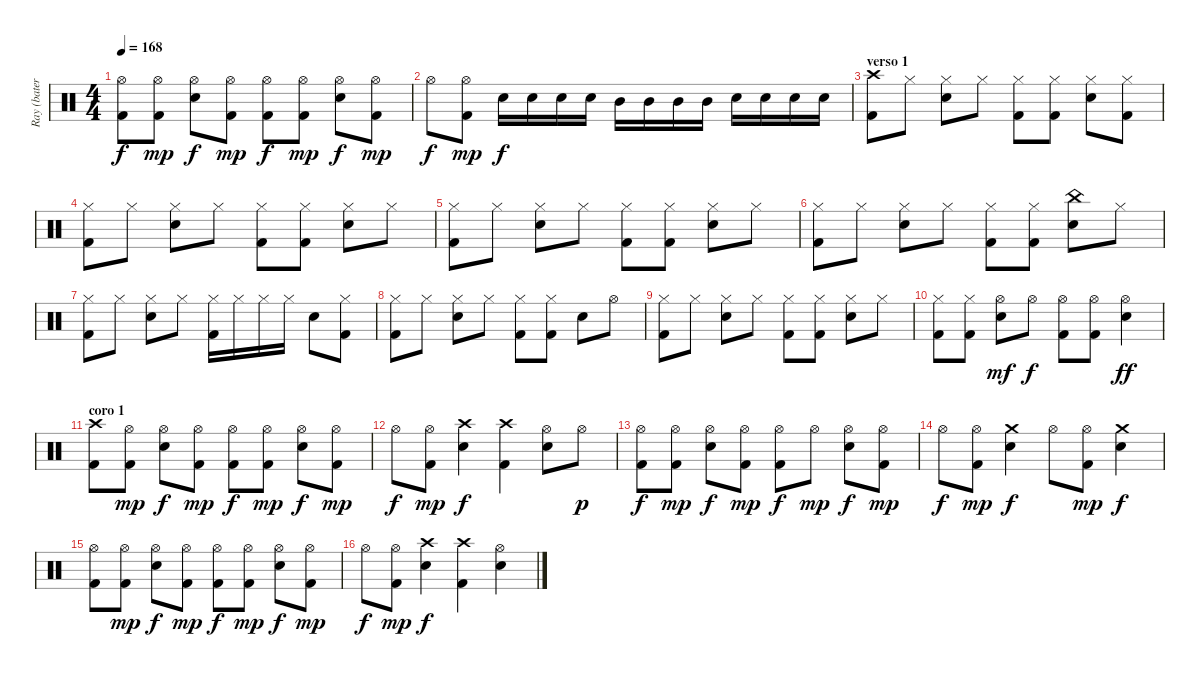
\track ("Ray (batería)" "Ray (bater") {instrument percussion}
\staff {score}
\articulation defaults
\ts (4 4)
\tempo 168
\clef neutral
\ks c
("Hi-Hat (open)" "Kick (hit) 2").8{dy f} ("Hi-Hat (open)" "Kick (hit) 2").8{dy mp} ("Hi-Hat (open)" "Snare (hit) 2").8{dy f} ("Hi-Hat (open)" "Kick (hit) 2").8{dy mp} ("Hi-Hat (open)" "Kick (hit) 2").8{dy f} ("Hi-Hat (open)" "Kick (hit) 2").8{dy mp} ("Hi-Hat (open)" "Snare (hit) 2").8{dy f} ("Hi-Hat (open)" "Kick (hit) 2").8{dy mp} |
"Hi-Hat (open)".8{dy f} ("Hi-Hat (open)" "Kick (hit) 2").8{dy mp} "Snare (hit) 2".16{dy f} "Snare (hit) 2".16 "Snare (hit) 2".16 "Snare (hit) 2".16 "Mid Tom (hit)".16 "Mid Tom (hit)".16 "Mid Tom (hit)".16 "Mid Tom (hit)".16 "Snare (hit) 2".16 "Snare (hit) 2".16 "Snare (hit) 2".16 "Snare (hit) 2".16 |
\section ("" "verso 1")
("Crash high (hit)" "Kick (hit) 2").8 "Hi-Hat (closed)".8 ("Hi-Hat (closed)" "Snare (hit) 2").8 "Hi-Hat (closed)".8 ("Hi-Hat (closed)" "Kick (hit) 2").8 ("Hi-Hat (closed)" "Kick (hit) 2").8 ("Hi-Hat (closed)" "Snare (hit) 2").8 ("Hi-Hat (closed)" "Kick (hit) 2").8 |
("Hi-Hat (closed)" "Kick (hit) 2").8 "Hi-Hat (closed)".8 ("Hi-Hat (closed)" "Snare (hit) 2").8 "Hi-Hat (closed)".8 ("Hi-Hat (closed)" "Kick (hit) 2").8 ("Hi-Hat (closed)" "Kick (hit) 2").8 ("Hi-Hat (closed)" "Snare (hit) 2").8 "Hi-Hat (closed)".8 |
("Hi-Hat (closed)" "Kick (hit) 2").8 "Hi-Hat (closed)".8 ("Hi-Hat (closed)" "Snare (hit) 2").8 "Hi-Hat (closed)".8 ("Hi-Hat (closed)" "Kick (hit) 2").8 ("Hi-Hat (closed)" "Kick (hit) 2").8 ("Hi-Hat (closed)" "Snare (hit) 2").8 "Hi-Hat (closed)".8 |
("Hi-Hat (closed)" "Kick (hit) 2").8 "Hi-Hat (closed)".8 ("Hi-Hat (closed)" "Snare (hit) 2").8 "Hi-Hat (closed)".8 ("Hi-Hat (closed)" "Kick (hit) 2").8 ("Hi-Hat (closed)" "Kick (hit) 2").8 ("China (hit)" "Snare (hit) 2").8 "Hi-Hat (closed)".8 |
("Hi-Hat (closed)" "Kick (hit) 2").8 "Hi-Hat (closed)".8 ("Hi-Hat (closed)" "Snare (hit) 2").8 "Hi-Hat (closed)".8 ("Hi-Hat (closed)" "Kick (hit) 2").16 "Hi-Hat (closed)".16 "Hi-Hat (closed)".16 "Hi-Hat (closed)".16 "Snare (hit) 2".8 ("Hi-Hat (closed)" "Kick (hit) 2").8 |
("Hi-Hat (closed)" "Kick (hit) 2").8 "Hi-Hat (closed)".8 ("Hi-Hat (closed)" "Snare (hit) 2").8 "Hi-Hat (closed)".8 ("Hi-Hat (closed)" "Kick (hit) 2").8 ("Hi-Hat (closed)" "Kick (hit) 2").8 "Snare (hit) 2".8 "Hi-Hat (open)".8 |
("Hi-Hat (closed)" "Kick (hit) 2").8 "Hi-Hat (closed)".8 ("Hi-Hat (closed)" "Snare (hit) 2").8 "Hi-Hat (closed)".8 ("Hi-Hat (closed)" "Kick (hit) 2").8 ("Hi-Hat (closed)" "Kick (hit) 2").8 ("Hi-Hat (closed)" "Snare (hit) 2").8 "Hi-Hat (closed)".8 |
("Hi-Hat (closed)" "Kick (hit) 2").8 ("Hi-Hat (closed)" "Kick (hit) 2").8 ("Hi-Hat (open)" "Snare (hit) 2").8{dy mf} "Hi-Hat (open)".8{dy f} ("Hi-Hat (open)" "Kick (hit) 2").8 ("Hi-Hat (open)" "Kick (hit) 2").8 ("Hi-Hat (open)" "Snare (hit) 2").4{dy ff} |
\section ("" "coro 1")
("Crash high (hit)" "Kick (hit) 2").8 ("Hi-Hat (open)" "Kick (hit) 2").8{dy mp} ("Hi-Hat (open)" "Snare (hit) 2").8{dy f} ("Hi-Hat (open)" "Kick (hit) 2").8{dy mp} ("Hi-Hat (open)" "Kick (hit) 2").8{dy f} ("Hi-Hat (open)" "Kick (hit) 2").8{dy mp} ("Hi-Hat (open)" "Snare (hit) 2").8{dy f} ("Hi-Hat (open)" "Kick (hit) 2").8{dy mp} |
"Hi-Hat (open)".8{dy f} ("Hi-Hat (open)" "Kick (hit) 2").8{dy mp} ("Crash high (hit)" "Snare (hit) 2").4{dy f} ("Crash high (hit)" "Kick (hit) 2").4 ("Hi-Hat (open)" "Snare (hit) 2").8 "Hi-Hat (open)".8{dy p} |
("Hi-Hat (open)" "Kick (hit) 2").8{dy f} ("Hi-Hat (open)" "Kick (hit) 2").8{dy mp} ("Hi-Hat (open)" "Snare (hit) 2").8{dy f} ("Hi-Hat (open)" "Kick (hit) 2").8{dy mp} ("Hi-Hat (open)" "Kick (hit) 2").8{dy f} "Hi-Hat (open)".8{dy mp} ("Hi-Hat (open)" "Snare (hit) 2").8{dy f} ("Hi-Hat (open)" "Kick (hit) 2").8{dy mp} |
"Hi-Hat (open)".8{dy f} ("Hi-Hat (open)" "Kick (hit) 2").8{dy mp} ("Crash medium (hit)" "Snare (hit) 2").4{dy f} "Hi-Hat (open)".8 ("Hi-Hat (open)" "Kick (hit) 2").8{dy mp} ("Crash medium (hit)" "Snare (hit) 2").4{dy f} |
("Hi-Hat (open)" "Kick (hit) 2").8 ("Hi-Hat (open)" "Kick (hit) 2").8{dy mp} ("Hi-Hat (open)" "Snare (hit) 2").8{dy f} ("Hi-Hat (open)" "Kick (hit) 2").8{dy mp} ("Hi-Hat (open)" "Kick (hit) 2").8{dy f} ("Hi-Hat (open)" "Kick (hit) 2").8{dy mp} ("Hi-Hat (open)" "Snare (hit) 2").8{dy f} ("Hi-Hat (open)" "Kick (hit) 2").8{dy mp} |
"Hi-Hat (open)".8{dy f} ("Hi-Hat (open)" "Kick (hit) 2").8{dy mp} ("Crash high (hit)" "Snare (hit) 2").4{dy f} ("Crash high (hit)" "Kick (hit) 2").4 ("Hi-Hat (open)" "Snare (hit) 2").4
